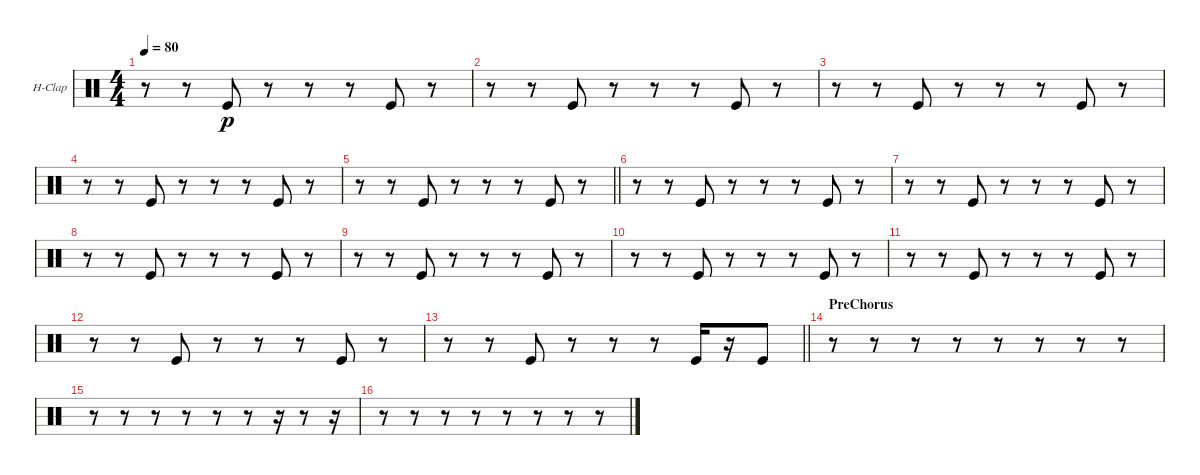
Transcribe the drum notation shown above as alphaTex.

\bracketExtendMode groupsimilarinstruments
\firstSystemTrackNameOrientation horizontal
\otherSystemsTrackNameOrientation horizontal
\track ("Hand Clap" "H-Clap") {instrument percussion}
\staff {score}
\articulation defaults
\ts (4 4)
\tempo 80
\clef neutral
\ks c
r.8{dy p} r.8 "Kick (hit)".8 r.8 r.8 r.8 "Kick (hit)".8 r.8 |
r.8 r.8 "Kick (hit)".8 r.8 r.8 r.8 "Kick (hit)".8 r.8 |
r.8 r.8 "Kick (hit)".8 r.8 r.8 r.8 "Kick (hit)".8 r.8 |
r.8 r.8 "Kick (hit)".8 r.8 r.8 r.8 "Kick (hit)".8 r.8 |
\barLineRight lightlight
r.8 r.8 "Kick (hit)".8 r.8 r.8 r.8 "Kick (hit)".8 r.8 |
r.8 r.8 "Kick (hit)".8 r.8 r.8 r.8 "Kick (hit)".8 r.8 |
r.8 r.8 "Kick (hit)".8 r.8 r.8 r.8 "Kick (hit)".8 r.8 |
r.8 r.8 "Kick (hit)".8 r.8 r.8 r.8 "Kick (hit)".8 r.8 |
r.8 r.8 "Kick (hit)".8 r.8 r.8 r.8 "Kick (hit)".8 r.8 |
r.8 r.8 "Kick (hit)".8 r.8 r.8 r.8 "Kick (hit)".8 r.8 |
r.8 r.8 "Kick (hit)".8 r.8 r.8 r.8 "Kick (hit)".8 r.8 |
r.8 r.8 "Kick (hit)".8 r.8 r.8 r.8 "Kick (hit)".8 r.8 |
\barLineRight lightlight
r.8 r.8 "Kick (hit)".8 r.8 r.8 r.8 "Kick (hit)".16 r.16 "Kick (hit)".8 |
\section ("" "PreChorus")
r.8 r.8 r.8 r.8 r.8 r.8 r.8 r.8 |
r.8 r.8 r.8 r.8 r.8 r.8 r.16 r.8 r.16 |
r.8 r.8 r.8 r.8 r.8 r.8 r.8 r.8
